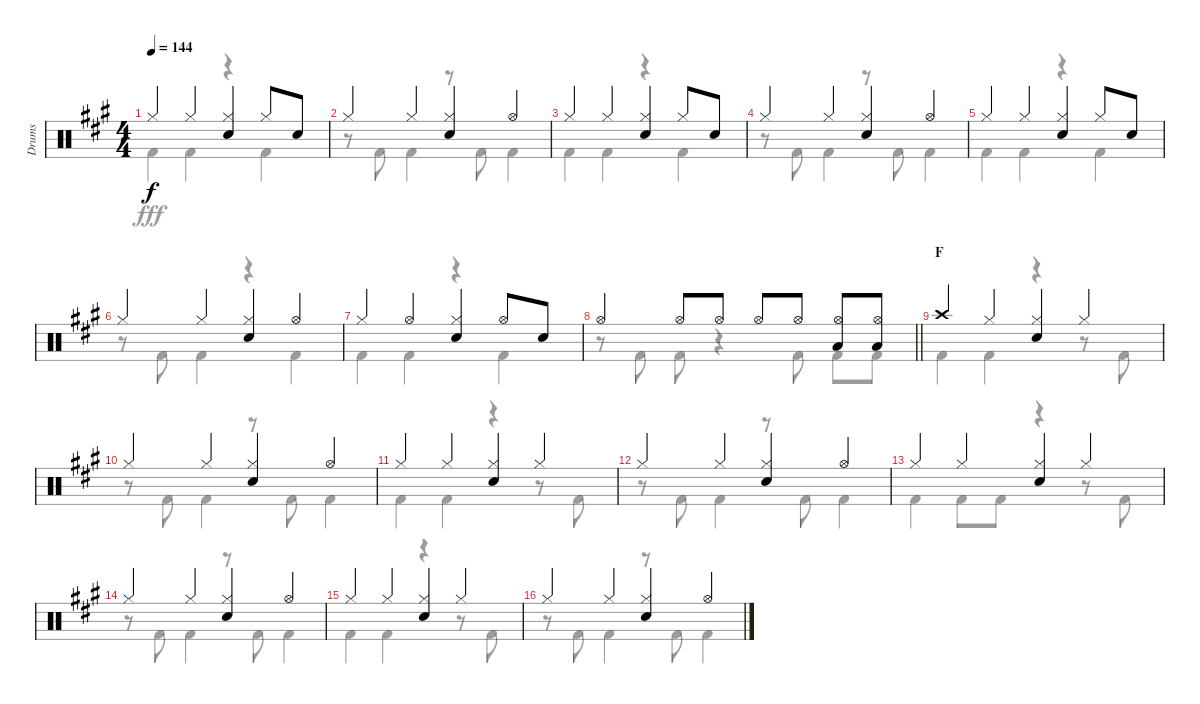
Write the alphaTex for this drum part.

\track ("Drums" "Drums") {instrument percussion}
\staff {score}
\articulation defaults
\voice
\ts (4 4)
\tempo 144
\clef neutral
\ks a "Hi-Hat (closed)".4{dy f} "Hi-Hat (closed)".4
("Hi-Hat (closed)" "Snare (hit) 2").4 "Hi-Hat (closed)".8 "Snare (hit) 2".8 |
"Hi-Hat (closed)".4 "Hi-Hat (closed)".4 ("Hi-Hat (closed)" "Snare (hit) 2").4 "Hi-Hat (open)".4 |
"Hi-Hat (closed)".4 "Hi-Hat (closed)".4 ("Hi-Hat (closed)" "Snare (hit) 2").4 "Hi-Hat (closed)".8 "Snare (hit) 2".8 |
"Hi-Hat (closed)".4 "Hi-Hat (closed)".4 ("Hi-Hat (closed)" "Snare (hit) 2").4 "Hi-Hat (open)".4 |
"Hi-Hat (closed)".4 "Hi-Hat (closed)".4 ("Hi-Hat (closed)" "Snare (hit) 2").4 "Hi-Hat (closed)".8 "Snare (hit) 2".8 |
"Hi-Hat (closed)".4 "Hi-Hat (closed)".4 ("Hi-Hat (closed)" "Snare (hit) 2").4 "Hi-Hat (open)".4 |
"Hi-Hat (closed)".4 "Hi-Hat (open)".4 ("Hi-Hat (closed)" "Snare (hit) 2").4 "Hi-Hat (open)".8 "Snare (hit) 2".8 |
\barLineRight lightlight "Hi-Hat (open)".4 "Hi-Hat (open)".8 "Hi-Hat (open)".8 "Hi-Hat (open)".8 "Hi-Hat (open)".8
("Hi-Hat (open)" "Low Tom (hit)").8 ("Hi-Hat (open)" "Low Tom (hit)").8 |
\section ("" "F")
"Crash high (hit)".4 "Hi-Hat (closed)".4 ("Hi-Hat (closed)" "Snare (hit) 2").4 "Hi-Hat (closed)".4 |
"Hi-Hat (closed)".4 "Hi-Hat (closed)".4 ("Hi-Hat (closed)" "Snare (hit) 2").4 "Hi-Hat (open)".4 |
"Hi-Hat (closed)".4 "Hi-Hat (closed)".4 ("Hi-Hat (closed)" "Snare (hit) 2").4 "Hi-Hat (closed)".4 |
"Hi-Hat (closed)".4 "Hi-Hat (closed)".4 ("Hi-Hat (closed)" "Snare (hit) 2").4 "Hi-Hat (open)".4 |
"Hi-Hat (closed)".4 "Hi-Hat (closed)".4 ("Hi-Hat (closed)" "Snare (hit) 2").4 "Hi-Hat (closed)".4 |
"Hi-Hat (closed)".4 "Hi-Hat (closed)".4 ("Hi-Hat (closed)" "Snare (hit) 2").4 "Hi-Hat (open)".4 |
"Hi-Hat (closed)".4 "Hi-Hat (closed)".4 ("Hi-Hat (closed)" "Snare (hit) 2").4 "Hi-Hat (closed)".4 |
"Hi-Hat (closed)".4 "Hi-Hat (closed)".4 ("Hi-Hat (closed)" "Snare (hit) 2").4 "Hi-Hat (open)".4
\voice
\clef neutral
\ottava regular
\simile none
\ks a "Kick (hit) 2".4{dy fff} "Kick (hit) 2".4
r.4 "Kick (hit) 2".4 |
r.8 "Kick (hit) 2".8 "Kick (hit) 2".4 r.8 "Kick (hit) 2".8 "Kick (hit) 2".4 |
"Kick (hit) 2".4 "Kick (hit) 2".4 r.4 "Kick (hit) 2".4 |
r.8 "Kick (hit) 2".8 "Kick (hit) 2".4 r.8 "Kick (hit) 2".8 "Kick (hit) 2".4 |
"Kick (hit) 2".4 "Kick (hit) 2".4 r.4 "Kick (hit) 2".4 |
r.8 "Kick (hit) 2".8 "Kick (hit) 2".4 r.4 "Kick (hit) 2".4 |
"Kick (hit) 2".4 "Kick (hit) 2".4 r.4 "Kick (hit) 2".4 |
\barLineRight lightlight
r.8 "Kick (hit) 2".8 "Kick (hit) 2".8 r.4 "Kick (hit) 2".8 "Kick (hit) 2".8 "Kick (hit) 2".8 |
"Kick (hit) 2".4 "Kick (hit) 2".4 r.4 r.8 "Kick (hit) 2".8 |
r.8 "Kick (hit) 2".8 "Kick (hit) 2".4 r.8 "Kick (hit) 2".8 "Kick (hit) 2".4 |
"Kick (hit) 2".4 "Kick (hit) 2".4 r.4 r.8 "Kick (hit) 2".8 |
r.8 "Kick (hit) 2".8 "Kick (hit) 2".4 r.8 "Kick (hit) 2".8 "Kick (hit) 2".4 |
"Kick (hit) 2".4 "Kick (hit) 2".8 "Kick (hit) 2".8 r.4 r.8 "Kick (hit) 2".8 |
r.8 "Kick (hit) 2".8 "Kick (hit) 2".4 r.8 "Kick (hit) 2".8 "Kick (hit) 2".4 |
"Kick (hit) 2".4 "Kick (hit) 2".4 r.4 r.8 "Kick (hit) 2".8 |
r.8 "Kick (hit) 2".8 "Kick (hit) 2".4 r.8 "Kick (hit) 2".8 "Kick (hit) 2".4
